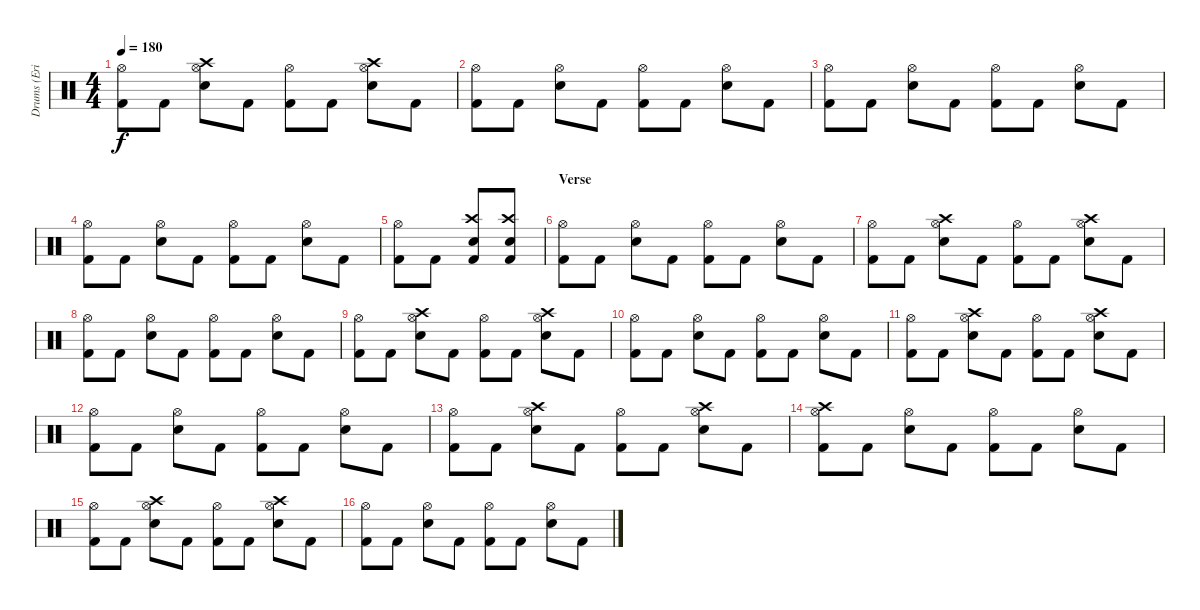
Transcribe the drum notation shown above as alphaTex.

\track ("Drums (Eric Young)" "Drums (Eri") {instrument percussion}
\staff {score}
\articulation defaults
\ts (4 4)
\tempo 180
\clef neutral
\ks c
("Hi-Hat (open)" "Kick (hit) 2").8{dy f} "Kick (hit) 2".8 ("Crash high (hit)" "Hi-Hat (open)" "Snare (hit) 2").8 "Kick (hit) 2".8 ("Hi-Hat (open)" "Kick (hit) 2").8 "Kick (hit) 2".8 ("Crash high (hit)" "Hi-Hat (open)" "Snare (hit) 2").8 "Kick (hit) 2".8 |
("Hi-Hat (open)" "Kick (hit) 2").8 "Kick (hit) 2".8 ("Hi-Hat (open)" "Snare (hit) 2").8 "Kick (hit) 2".8 ("Hi-Hat (open)" "Kick (hit) 2").8 "Kick (hit) 2".8 ("Hi-Hat (open)" "Snare (hit) 2").8 "Kick (hit) 2".8 |
("Hi-Hat (open)" "Kick (hit) 2").8 "Kick (hit) 2".8 ("Hi-Hat (open)" "Snare (hit) 2").8 "Kick (hit) 2".8 ("Hi-Hat (open)" "Kick (hit) 2").8 "Kick (hit) 2".8 ("Hi-Hat (open)" "Snare (hit) 2").8 "Kick (hit) 2".8 |
("Hi-Hat (open)" "Kick (hit) 2").8 "Kick (hit) 2".8 ("Hi-Hat (open)" "Snare (hit) 2").8 "Kick (hit) 2".8 ("Hi-Hat (open)" "Kick (hit) 2").8 "Kick (hit) 2".8 ("Hi-Hat (open)" "Snare (hit) 2").8 "Kick (hit) 2".8 |
("Hi-Hat (open)" "Kick (hit) 2").8 "Kick (hit) 2".8 ("Crash high (hit)" "Snare (hit) 2" "Kick (hit) 2").8 ("Crash high (hit)" "Snare (hit) 2" "Kick (hit) 2").8 |
\section ("" "Verse")
("Hi-Hat (open)" "Kick (hit) 2").8 "Kick (hit) 2".8 ("Hi-Hat (open)" "Snare (hit) 2").8 "Kick (hit) 2".8 ("Hi-Hat (open)" "Kick (hit) 2").8 "Kick (hit) 2".8 ("Hi-Hat (open)" "Snare (hit) 2").8 "Kick (hit) 2".8 |
("Hi-Hat (open)" "Kick (hit) 2").8 "Kick (hit) 2".8 ("Crash high (hit)" "Hi-Hat (open)" "Snare (hit) 2").8 "Kick (hit) 2".8 ("Hi-Hat (open)" "Kick (hit) 2").8 "Kick (hit) 2".8 ("Crash high (hit)" "Hi-Hat (open)" "Snare (hit) 2").8 "Kick (hit) 2".8 |
("Hi-Hat (open)" "Kick (hit) 2").8 "Kick (hit) 2".8 ("Hi-Hat (open)" "Snare (hit) 2").8 "Kick (hit) 2".8 ("Hi-Hat (open)" "Kick (hit) 2").8 "Kick (hit) 2".8 ("Hi-Hat (open)" "Snare (hit) 2").8 "Kick (hit) 2".8 |
("Hi-Hat (open)" "Kick (hit) 2").8 "Kick (hit) 2".8 ("Crash high (hit)" "Hi-Hat (open)" "Snare (hit) 2").8 "Kick (hit) 2".8 ("Hi-Hat (open)" "Kick (hit) 2").8 "Kick (hit) 2".8 ("Crash high (hit)" "Hi-Hat (open)" "Snare (hit) 2").8 "Kick (hit) 2".8 |
("Hi-Hat (open)" "Kick (hit) 2").8 "Kick (hit) 2".8 ("Hi-Hat (open)" "Snare (hit) 2").8 "Kick (hit) 2".8 ("Hi-Hat (open)" "Kick (hit) 2").8 "Kick (hit) 2".8 ("Hi-Hat (open)" "Snare (hit) 2").8 "Kick (hit) 2".8 |
("Hi-Hat (open)" "Kick (hit) 2").8 "Kick (hit) 2".8 ("Crash high (hit)" "Hi-Hat (open)" "Snare (hit) 2").8 "Kick (hit) 2".8 ("Hi-Hat (open)" "Kick (hit) 2").8 "Kick (hit) 2".8 ("Crash high (hit)" "Hi-Hat (open)" "Snare (hit) 2").8 "Kick (hit) 2".8 |
("Hi-Hat (open)" "Kick (hit) 2").8 "Kick (hit) 2".8 ("Hi-Hat (open)" "Snare (hit) 2").8 "Kick (hit) 2".8 ("Hi-Hat (open)" "Kick (hit) 2").8 "Kick (hit) 2".8 ("Hi-Hat (open)" "Snare (hit) 2").8 "Kick (hit) 2".8 |
("Hi-Hat (open)" "Kick (hit) 2").8 "Kick (hit) 2".8 ("Crash high (hit)" "Hi-Hat (open)" "Snare (hit) 2").8 "Kick (hit) 2".8 ("Hi-Hat (open)" "Kick (hit) 2").8 "Kick (hit) 2".8 ("Crash high (hit)" "Hi-Hat (open)" "Snare (hit) 2").8 "Kick (hit) 2".8 |
("Crash high (hit)" "Hi-Hat (open)" "Kick (hit) 2").8 "Kick (hit) 2".8 ("Hi-Hat (open)" "Snare (hit) 2").8 "Kick (hit) 2".8 ("Hi-Hat (open)" "Kick (hit) 2").8 "Kick (hit) 2".8 ("Hi-Hat (open)" "Snare (hit) 2").8 "Kick (hit) 2".8 |
("Hi-Hat (open)" "Kick (hit) 2").8 "Kick (hit) 2".8 ("Crash high (hit)" "Hi-Hat (open)" "Snare (hit) 2").8 "Kick (hit) 2".8 ("Hi-Hat (open)" "Kick (hit) 2").8 "Kick (hit) 2".8 ("Crash high (hit)" "Hi-Hat (open)" "Snare (hit) 2").8 "Kick (hit) 2".8 |
("Hi-Hat (open)" "Kick (hit) 2").8 "Kick (hit) 2".8 ("Hi-Hat (open)" "Snare (hit) 2").8 "Kick (hit) 2".8 ("Hi-Hat (open)" "Kick (hit) 2").8 "Kick (hit) 2".8 ("Hi-Hat (open)" "Snare (hit) 2").8 "Kick (hit) 2".8
